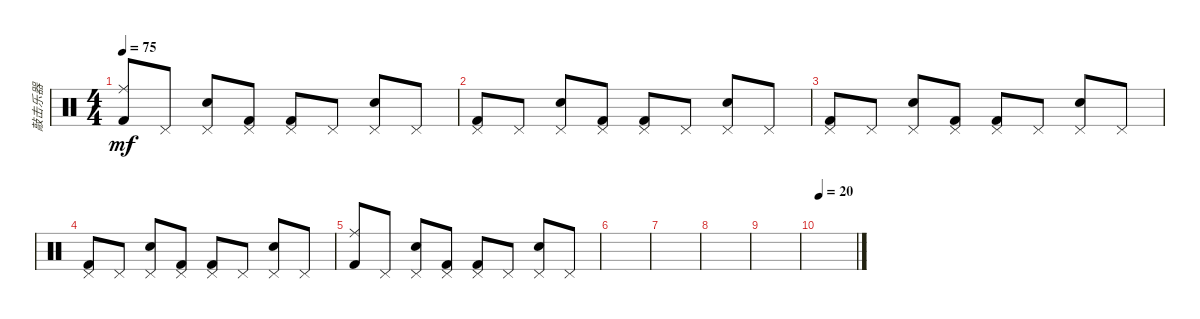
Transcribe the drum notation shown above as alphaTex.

\track ("敲击乐器" "敲击乐器") {instrument percussion}
\staff {score}
\articulation defaults
\ts (4 4)
\tempo 75
\clef neutral
\ks c
("Ride (middle)" "Kick (hit) 2").8{dy mf} "Pedal Hi-Hat (hit)".8 ("Pedal Hi-Hat (hit)" "Electric Snare (hit)").8 ("Pedal Hi-Hat (hit)" "Kick (hit) 2").8 ("Pedal Hi-Hat (hit)" "Kick (hit) 2").8 "Pedal Hi-Hat (hit)".8 ("Pedal Hi-Hat (hit)" "Electric Snare (hit)").8 "Pedal Hi-Hat (hit)".8 |
("Pedal Hi-Hat (hit)" "Kick (hit) 2").8 "Pedal Hi-Hat (hit)".8 ("Pedal Hi-Hat (hit)" "Electric Snare (hit)").8 ("Pedal Hi-Hat (hit)" "Kick (hit) 2").8 ("Pedal Hi-Hat (hit)" "Kick (hit) 2").8 "Pedal Hi-Hat (hit)".8 ("Pedal Hi-Hat (hit)" "Electric Snare (hit)").8 "Pedal Hi-Hat (hit)".8 |
("Pedal Hi-Hat (hit)" "Kick (hit) 2").8 "Pedal Hi-Hat (hit)".8 ("Pedal Hi-Hat (hit)" "Electric Snare (hit)").8 ("Pedal Hi-Hat (hit)" "Kick (hit) 2").8 ("Pedal Hi-Hat (hit)" "Kick (hit) 2").8 "Pedal Hi-Hat (hit)".8 ("Pedal Hi-Hat (hit)" "Electric Snare (hit)").8 "Pedal Hi-Hat (hit)".8 |
("Pedal Hi-Hat (hit)" "Kick (hit) 2").8 "Pedal Hi-Hat (hit)".8 ("Pedal Hi-Hat (hit)" "Electric Snare (hit)").8 ("Pedal Hi-Hat (hit)" "Kick (hit) 2").8 ("Pedal Hi-Hat (hit)" "Kick (hit) 2").8 "Pedal Hi-Hat (hit)".8 ("Pedal Hi-Hat (hit)" "Electric Snare (hit)").8 "Pedal Hi-Hat (hit)".8 |
("Ride (middle)" "Kick (hit) 2").8 "Pedal Hi-Hat (hit)".8 ("Pedal Hi-Hat (hit)" "Electric Snare (hit)").8 ("Pedal Hi-Hat (hit)" "Kick (hit) 2").8 ("Pedal Hi-Hat (hit)" "Kick (hit) 2").8 "Pedal Hi-Hat (hit)".8 ("Pedal Hi-Hat (hit)" "Electric Snare (hit)").8 "Pedal Hi-Hat (hit)".8 |
|
|
|
|
\tempo 20
